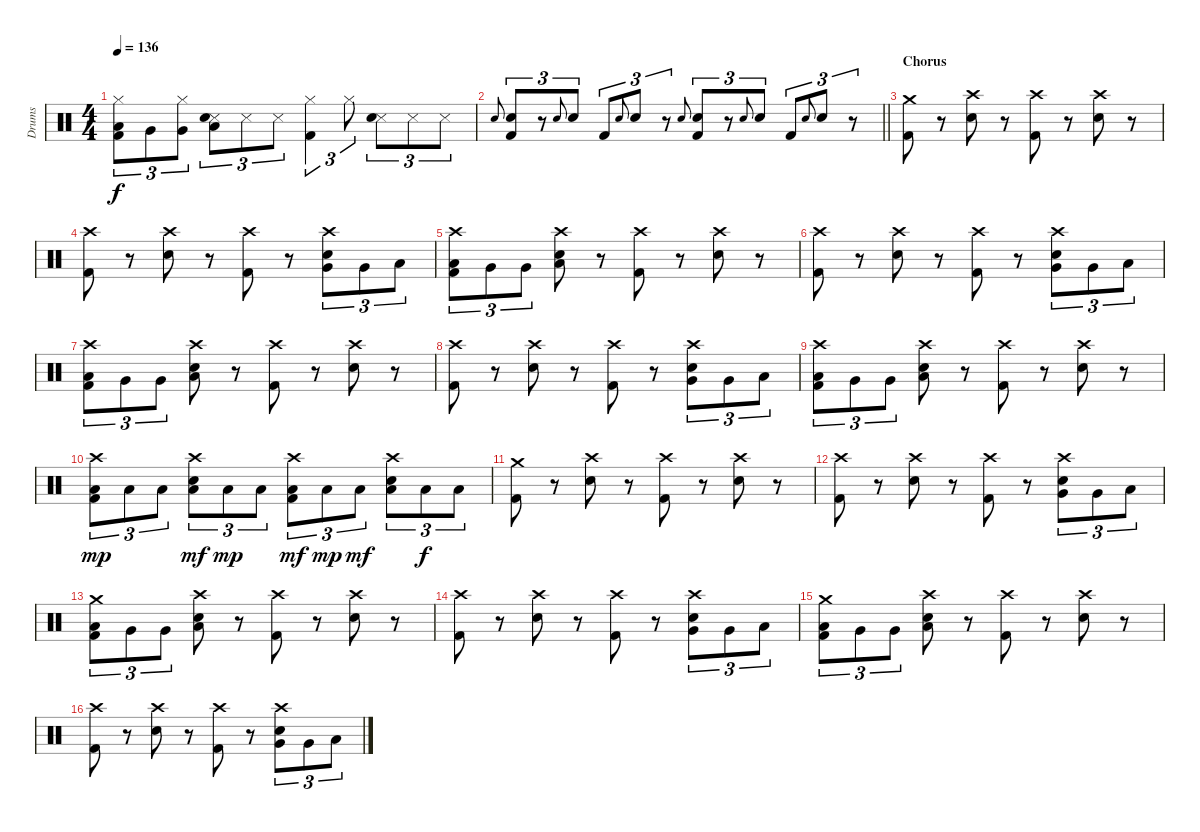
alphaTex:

\track ("Drums" "Drums") {instrument percussion}
\staff {score}
\articulation defaults
\ts (4 4)
\tempo 136
\clef neutral
\ks c
("Hi-Hat (closed)" "Low Floor Tom (hit)" "Kick (hit) 2").8{tu (3 2) dy f} "Very Low Tom (hit)".8{tu (3 2)} ("Hi-Hat (closed)" "Very Low Tom (hit)").8{tu (3 2)} ("Snare (side stick) 3" "Electric Snare (hit)" "Low Tom (hit)").8{tu (3 2)} "Snare (side stick) 3".8{tu (3 2)} "Snare (side stick) 3".8{tu (3 2)} ("Hi-Hat (closed)" "Kick (hit) 2").4{tu (3 2)} "Hi-Hat (closed)".8{tu (3 2)} ("Snare (side stick) 3" "Electric Snare (hit)").8{tu (3 2)} "Snare (side stick) 3".8{tu (3 2)} "Snare (side stick) 3".8{tu (3 2)} |
\barLineRight lightlight "Electric Snare (hit)".8{gr onbeat}
("Electric Snare (hit)" "Kick (hit) 2").8{tu (3 2)} r.8{tu (3 2)} "Electric Snare (hit)".8{gr onbeat} "Electric Snare (hit)".8{tu (3 2)} "Kick (hit) 2".8{tu (3 2)} "Electric Snare (hit)".8{gr onbeat} "Electric Snare (hit)".8{tu (3 2)} r.8{tu (3 2)} "Electric Snare (hit)".8{gr onbeat} ("Electric Snare (hit)" "Kick (hit) 2").8{tu (3 2)} r.8{tu (3 2)} "Electric Snare (hit)".8{gr onbeat} "Electric Snare (hit)".8{tu (3 2)} "Kick (hit) 2".8{tu (3 2)} "Electric Snare (hit)".8{gr onbeat} "Electric Snare (hit)".8{tu (3 2)} r.8{tu (3 2)} |
\section ("" "Chorus")
("Crash medium (hit)" "Kick (hit) 2").8 r.8 ("Crash high (hit)" "Electric Snare (hit)").8 r.8 ("Crash high (hit)" "Kick (hit) 2").8 r.8 ("Crash high (hit)" "Electric Snare (hit)").8 r.8 |
("Crash high (hit)" "Kick (hit) 2").8 r.8 ("Crash high (hit)" "Electric Snare (hit)").8 r.8 ("Crash high (hit)" "Kick (hit) 2").8 r.8 ("Crash high (hit)" "Electric Snare (hit)" "Very Low Tom (hit)").8{tu (3 2)} "Very Low Tom (hit)".8{tu (3 2)} "Low Floor Tom (hit)".8{tu (3 2)} |
("Crash high (hit)" "Low Floor Tom (hit)" "Kick (hit) 2").8{tu (3 2)} "Very Low Tom (hit)".8{tu (3 2)} "Very Low Tom (hit)".8{tu (3 2)} ("Crash high (hit)" "Electric Snare (hit)" "Low Tom (hit)").8 r.8 ("Crash high (hit)" "Kick (hit) 2").8 r.8 ("Crash high (hit)" "Electric Snare (hit)").8 r.8 |
("Crash high (hit)" "Kick (hit) 2").8 r.8 ("Crash high (hit)" "Electric Snare (hit)").8 r.8 ("Crash high (hit)" "Kick (hit) 2").8 r.8 ("Crash high (hit)" "Electric Snare (hit)" "Very Low Tom (hit)").8{tu (3 2)} "Very Low Tom (hit)".8{tu (3 2)} "Low Floor Tom (hit)".8{tu (3 2)} |
("Crash high (hit)" "Low Floor Tom (hit)" "Kick (hit) 2").8{tu (3 2)} "Very Low Tom (hit)".8{tu (3 2)} "Very Low Tom (hit)".8{tu (3 2)} ("Crash high (hit)" "Electric Snare (hit)" "Low Tom (hit)").8 r.8 ("Crash high (hit)" "Kick (hit) 2").8 r.8 ("Crash high (hit)" "Electric Snare (hit)").8 r.8 |
("Crash high (hit)" "Kick (hit) 2").8 r.8 ("Crash high (hit)" "Electric Snare (hit)").8 r.8 ("Crash high (hit)" "Kick (hit) 2").8 r.8 ("Crash high (hit)" "Electric Snare (hit)" "Very Low Tom (hit)").8{tu (3 2)} "Very Low Tom (hit)".8{tu (3 2)} "Low Floor Tom (hit)".8{tu (3 2)} |
("Crash high (hit)" "Low Floor Tom (hit)" "Kick (hit) 2").8{tu (3 2)} "Very Low Tom (hit)".8{tu (3 2)} "Very Low Tom (hit)".8{tu (3 2)} ("Crash high (hit)" "Electric Snare (hit)" "Low Tom (hit)").8 r.8 ("Crash high (hit)" "Kick (hit) 2").8 r.8 ("Crash high (hit)" "Electric Snare (hit)").8 r.8 |
("Crash high (hit)" "Low Floor Tom (hit)" "Kick (hit) 2").8{tu (3 2) dy mp} "Low Floor Tom (hit)".8{tu (3 2)} "Low Floor Tom (hit)".8{tu (3 2)} ("Crash high (hit)" "Electric Snare (hit)" "Low Floor Tom (hit)").8{tu (3 2) dy mf} "Low Floor Tom (hit)".8{tu (3 2) dy mp} "Low Floor Tom (hit)".8{tu (3 2)} ("Crash high (hit)" "Low Floor Tom (hit)" "Kick (hit) 2").8{tu (3 2) dy mf} "Low Floor Tom (hit)".8{tu (3 2) dy mp} "Low Floor Tom (hit)".8{tu (3 2) dy mf} ("Crash high (hit)" "Electric Snare (hit)" "Low Floor Tom (hit)").8{tu (3 2)} "Low Floor Tom (hit)".8{tu (3 2) dy f} "Low Floor Tom (hit)".8{tu (3 2)} |
("Crash medium (hit)" "Kick (hit) 2").8 r.8 ("Crash high (hit)" "Electric Snare (hit)").8 r.8 ("Crash high (hit)" "Kick (hit) 2").8 r.8 ("Crash high (hit)" "Electric Snare (hit)").8 r.8 |
("Crash high (hit)" "Kick (hit) 2").8 r.8 ("Crash high (hit)" "Electric Snare (hit)").8 r.8 ("Crash high (hit)" "Kick (hit) 2").8 r.8 ("Crash high (hit)" "Electric Snare (hit)" "Very Low Tom (hit)").8{tu (3 2)} "Very Low Tom (hit)".8{tu (3 2)} "Low Floor Tom (hit)".8{tu (3 2)} |
("Crash medium (hit)" "Low Floor Tom (hit)" "Kick (hit) 2").8{tu (3 2)} "Very Low Tom (hit)".8{tu (3 2)} "Very Low Tom (hit)".8{tu (3 2)} ("Crash high (hit)" "Electric Snare (hit)" "Low Tom (hit)").8 r.8 ("Crash high (hit)" "Kick (hit) 2").8 r.8 ("Crash high (hit)" "Electric Snare (hit)").8 r.8 |
("Crash high (hit)" "Kick (hit) 2").8 r.8 ("Crash high (hit)" "Electric Snare (hit)").8 r.8 ("Crash high (hit)" "Kick (hit) 2").8 r.8 ("Crash high (hit)" "Electric Snare (hit)" "Very Low Tom (hit)").8{tu (3 2)} "Very Low Tom (hit)".8{tu (3 2)} "Low Floor Tom (hit)".8{tu (3 2)} |
("Crash medium (hit)" "Low Floor Tom (hit)" "Kick (hit) 2").8{tu (3 2)} "Very Low Tom (hit)".8{tu (3 2)} "Very Low Tom (hit)".8{tu (3 2)} ("Crash high (hit)" "Electric Snare (hit)" "Low Tom (hit)").8 r.8 ("Crash high (hit)" "Kick (hit) 2").8 r.8 ("Crash high (hit)" "Electric Snare (hit)").8 r.8 |
("Crash high (hit)" "Kick (hit) 2").8 r.8 ("Crash high (hit)" "Electric Snare (hit)").8 r.8 ("Crash high (hit)" "Kick (hit) 2").8 r.8 ("Crash high (hit)" "Electric Snare (hit)" "Very Low Tom (hit)").8{tu (3 2)} "Very Low Tom (hit)".8{tu (3 2)} "Low Floor Tom (hit)".8{tu (3 2)}
